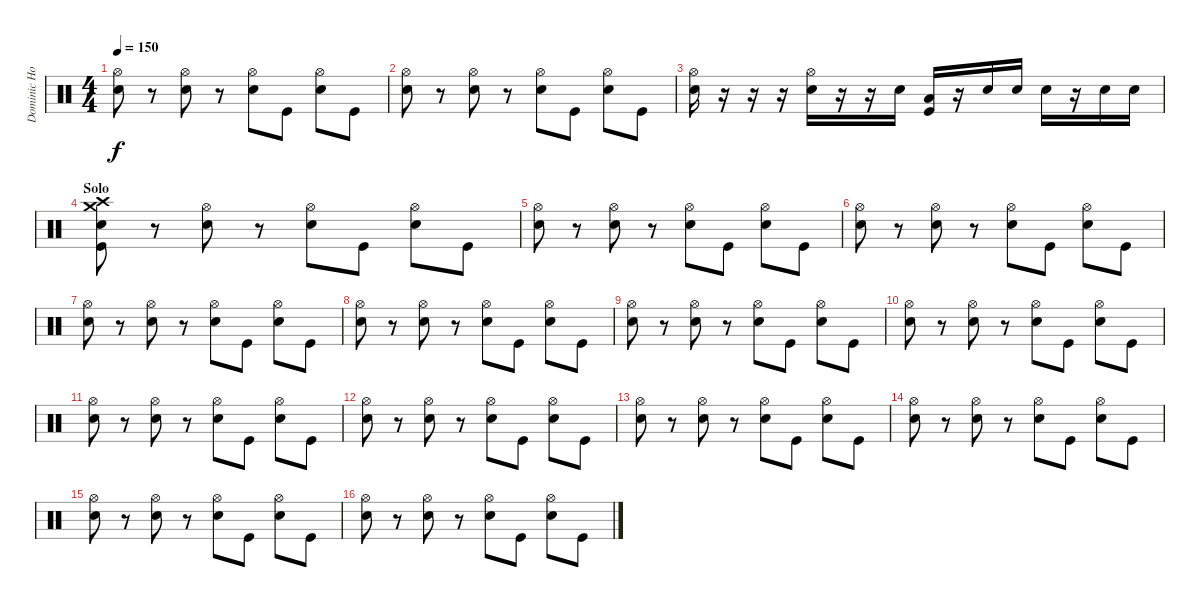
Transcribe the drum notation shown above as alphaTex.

\track ("Dominic Howard" "Dominic Ho") {instrument percussion}
\staff {score}
\articulation defaults
\ts (4 4)
\tempo 150
\clef neutral
\ks c
("Hi-Hat (open)" "Snare (hit) 2").8{dy f} r.8 ("Hi-Hat (open)" "Snare (hit) 2").8 r.8 ("Hi-Hat (open)" "Snare (hit) 2").8 "Kick (hit)".8 ("Hi-Hat (open)" "Snare (hit) 2").8 "Kick (hit)".8 |
("Hi-Hat (open)" "Snare (hit) 2").8 r.8 ("Hi-Hat (open)" "Snare (hit) 2").8 r.8 ("Hi-Hat (open)" "Snare (hit) 2").8 "Kick (hit)".8 ("Hi-Hat (open)" "Snare (hit) 2").8 "Kick (hit)".8 |
("Hi-Hat (open)" "Snare (hit) 2").16 r.16 r.16 r.16 ("Hi-Hat (open)" "Snare (hit) 2").16 r.16 r.16 "Snare (hit) 2".16 ("Low Tom (hit)" "Kick (hit)").16 r.16 "Snare (hit) 2".16 "Snare (hit) 2".16 "Snare (hit) 2".16 r.16 "Snare (hit) 2".16 "Snare (hit) 2".16 |
\section ("" "Solo")
("Crash medium (hit)" "Snare (hit) 2" "Crash high (hit)" "Kick (hit)").8 r.8 ("Hi-Hat (open)" "Snare (hit) 2").8 r.8 ("Hi-Hat (open)" "Snare (hit) 2").8 "Kick (hit)".8 ("Hi-Hat (open)" "Snare (hit) 2").8 "Kick (hit)".8 |
("Hi-Hat (open)" "Snare (hit) 2").8 r.8 ("Hi-Hat (open)" "Snare (hit) 2").8 r.8 ("Hi-Hat (open)" "Snare (hit) 2").8 "Kick (hit)".8 ("Hi-Hat (open)" "Snare (hit) 2").8 "Kick (hit)".8 |
("Hi-Hat (open)" "Snare (hit) 2").8 r.8 ("Hi-Hat (open)" "Snare (hit) 2").8 r.8 ("Hi-Hat (open)" "Snare (hit) 2").8 "Kick (hit)".8 ("Hi-Hat (open)" "Snare (hit) 2").8 "Kick (hit)".8 |
("Hi-Hat (open)" "Snare (hit) 2").8 r.8 ("Hi-Hat (open)" "Snare (hit) 2").8 r.8 ("Hi-Hat (open)" "Snare (hit) 2").8 "Kick (hit)".8 ("Hi-Hat (open)" "Snare (hit) 2").8 "Kick (hit)".8 |
("Hi-Hat (open)" "Snare (hit) 2").8 r.8 ("Hi-Hat (open)" "Snare (hit) 2").8 r.8 ("Hi-Hat (open)" "Snare (hit) 2").8 "Kick (hit)".8 ("Hi-Hat (open)" "Snare (hit) 2").8 "Kick (hit)".8 |
("Hi-Hat (open)" "Snare (hit) 2").8 r.8 ("Hi-Hat (open)" "Snare (hit) 2").8 r.8 ("Hi-Hat (open)" "Snare (hit) 2").8 "Kick (hit)".8 ("Hi-Hat (open)" "Snare (hit) 2").8 "Kick (hit)".8 |
("Hi-Hat (open)" "Snare (hit) 2").8 r.8 ("Hi-Hat (open)" "Snare (hit) 2").8 r.8 ("Hi-Hat (open)" "Snare (hit) 2").8 "Kick (hit)".8 ("Hi-Hat (open)" "Snare (hit) 2").8 "Kick (hit)".8 |
("Hi-Hat (open)" "Snare (hit) 2").8 r.8 ("Hi-Hat (open)" "Snare (hit) 2").8 r.8 ("Hi-Hat (open)" "Snare (hit) 2").8 "Kick (hit)".8 ("Hi-Hat (open)" "Snare (hit) 2").8 "Kick (hit)".8 |
("Hi-Hat (open)" "Snare (hit) 2").8 r.8 ("Hi-Hat (open)" "Snare (hit) 2").8 r.8 ("Hi-Hat (open)" "Snare (hit) 2").8 "Kick (hit)".8 ("Hi-Hat (open)" "Snare (hit) 2").8 "Kick (hit)".8 |
("Hi-Hat (open)" "Snare (hit) 2").8 r.8 ("Hi-Hat (open)" "Snare (hit) 2").8 r.8 ("Hi-Hat (open)" "Snare (hit) 2").8 "Kick (hit)".8 ("Hi-Hat (open)" "Snare (hit) 2").8 "Kick (hit)".8 |
("Hi-Hat (open)" "Snare (hit) 2").8 r.8 ("Hi-Hat (open)" "Snare (hit) 2").8 r.8 ("Hi-Hat (open)" "Snare (hit) 2").8 "Kick (hit)".8 ("Hi-Hat (open)" "Snare (hit) 2").8 "Kick (hit)".8 |
("Hi-Hat (open)" "Snare (hit) 2").8 r.8 ("Hi-Hat (open)" "Snare (hit) 2").8 r.8 ("Hi-Hat (open)" "Snare (hit) 2").8 "Kick (hit)".8 ("Hi-Hat (open)" "Snare (hit) 2").8 "Kick (hit)".8 |
("Hi-Hat (open)" "Snare (hit) 2").8 r.8 ("Hi-Hat (open)" "Snare (hit) 2").8 r.8 ("Hi-Hat (open)" "Snare (hit) 2").8 "Kick (hit)".8 ("Hi-Hat (open)" "Snare (hit) 2").8 "Kick (hit)".8
